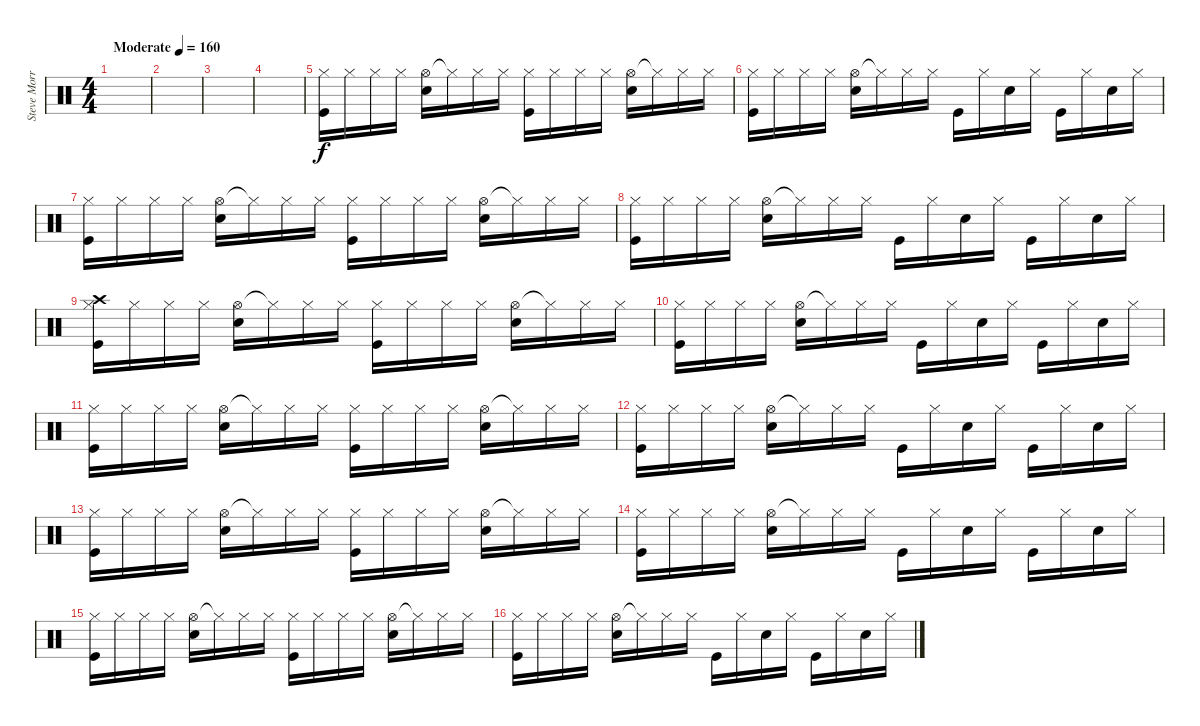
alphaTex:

\track ("Steve Morris" "Steve Morr") {instrument percussion}
\staff {score}
\articulation defaults
\ts (4 4)
\tempo (160 "Moderate")
\clef neutral
\ks c
|
|
|
|
("Hi-Hat (closed)" "Kick (hit)").16 "Hi-Hat (closed)".16 "Hi-Hat (closed)".16 "Hi-Hat (closed)".16 ("Hi-Hat (open)" "Electric Snare (hit)").16 "Hi-Hat (closed)"{t}.16 "Hi-Hat (closed)".16 "Hi-Hat (closed)".16 ("Hi-Hat (closed)" "Kick (hit)").16 "Hi-Hat (closed)".16 "Hi-Hat (closed)".16 "Hi-Hat (closed)".16 ("Hi-Hat (open)" "Electric Snare (hit)").16 "Hi-Hat (closed)"{t}.16 "Hi-Hat (closed)".16 "Hi-Hat (closed)".16 |
("Hi-Hat (closed)" "Kick (hit)").16 "Hi-Hat (closed)".16 "Hi-Hat (closed)".16 "Hi-Hat (closed)".16 ("Hi-Hat (open)" "Electric Snare (hit)").16 "Hi-Hat (closed)"{t}.16 "Hi-Hat (closed)".16 "Hi-Hat (closed)".16 "Kick (hit)".16 "Hi-Hat (closed)".16 "Electric Snare (hit)".16 "Hi-Hat (closed)".16 "Kick (hit)".16 "Hi-Hat (closed)".16 "Electric Snare (hit)".16 "Hi-Hat (closed)".16 |
("Hi-Hat (closed)" "Kick (hit)").16 "Hi-Hat (closed)".16 "Hi-Hat (closed)".16 "Hi-Hat (closed)".16 ("Hi-Hat (open)" "Electric Snare (hit)").16 "Hi-Hat (closed)"{t}.16 "Hi-Hat (closed)".16 "Hi-Hat (closed)".16 ("Hi-Hat (closed)" "Kick (hit)").16 "Hi-Hat (closed)".16 "Hi-Hat (closed)".16 "Hi-Hat (closed)".16 ("Hi-Hat (open)" "Electric Snare (hit)").16 "Hi-Hat (closed)"{t}.16 "Hi-Hat (closed)".16 "Hi-Hat (closed)".16 |
("Hi-Hat (closed)" "Kick (hit)").16 "Hi-Hat (closed)".16 "Hi-Hat (closed)".16 "Hi-Hat (closed)".16 ("Hi-Hat (open)" "Electric Snare (hit)").16 "Hi-Hat (closed)"{t}.16 "Hi-Hat (closed)".16 "Hi-Hat (closed)".16 "Kick (hit)".16 "Hi-Hat (closed)".16 "Electric Snare (hit)".16 "Hi-Hat (closed)".16 "Kick (hit)".16 "Hi-Hat (closed)".16 "Electric Snare (hit)".16 "Hi-Hat (closed)".16 |
("Hi-Hat (closed)" "Kick (hit)" "Crash high (hit)").16 "Hi-Hat (closed)".16 "Hi-Hat (closed)".16 "Hi-Hat (closed)".16 ("Hi-Hat (open)" "Electric Snare (hit)").16 "Hi-Hat (closed)"{t}.16 "Hi-Hat (closed)".16 "Hi-Hat (closed)".16 ("Hi-Hat (closed)" "Kick (hit)").16 "Hi-Hat (closed)".16 "Hi-Hat (closed)".16 "Hi-Hat (closed)".16 ("Hi-Hat (open)" "Electric Snare (hit)").16 "Hi-Hat (closed)"{t}.16 "Hi-Hat (closed)".16 "Hi-Hat (closed)".16 |
("Hi-Hat (closed)" "Kick (hit)").16 "Hi-Hat (closed)".16 "Hi-Hat (closed)".16 "Hi-Hat (closed)".16 ("Hi-Hat (open)" "Electric Snare (hit)").16 "Hi-Hat (closed)"{t}.16 "Hi-Hat (closed)".16 "Hi-Hat (closed)".16 "Kick (hit)".16 "Hi-Hat (closed)".16 "Electric Snare (hit)".16 "Hi-Hat (closed)".16 "Kick (hit)".16 "Hi-Hat (closed)".16 "Electric Snare (hit)".16 "Hi-Hat (closed)".16 |
("Hi-Hat (closed)" "Kick (hit)").16 "Hi-Hat (closed)".16 "Hi-Hat (closed)".16 "Hi-Hat (closed)".16 ("Hi-Hat (open)" "Electric Snare (hit)").16 "Hi-Hat (closed)"{t}.16 "Hi-Hat (closed)".16 "Hi-Hat (closed)".16 ("Hi-Hat (closed)" "Kick (hit)").16 "Hi-Hat (closed)".16 "Hi-Hat (closed)".16 "Hi-Hat (closed)".16 ("Hi-Hat (open)" "Electric Snare (hit)").16 "Hi-Hat (closed)"{t}.16 "Hi-Hat (closed)".16 "Hi-Hat (closed)".16 |
("Hi-Hat (closed)" "Kick (hit)").16 "Hi-Hat (closed)".16 "Hi-Hat (closed)".16 "Hi-Hat (closed)".16 ("Hi-Hat (open)" "Electric Snare (hit)").16 "Hi-Hat (closed)"{t}.16 "Hi-Hat (closed)".16 "Hi-Hat (closed)".16 "Kick (hit)".16 "Hi-Hat (closed)".16 "Electric Snare (hit)".16 "Hi-Hat (closed)".16 "Kick (hit)".16 "Hi-Hat (closed)".16 "Electric Snare (hit)".16 "Hi-Hat (closed)".16 |
("Hi-Hat (closed)" "Kick (hit)").16 "Hi-Hat (closed)".16 "Hi-Hat (closed)".16 "Hi-Hat (closed)".16 ("Hi-Hat (open)" "Electric Snare (hit)").16 "Hi-Hat (closed)"{t}.16 "Hi-Hat (closed)".16 "Hi-Hat (closed)".16 ("Hi-Hat (closed)" "Kick (hit)").16 "Hi-Hat (closed)".16 "Hi-Hat (closed)".16 "Hi-Hat (closed)".16 ("Hi-Hat (open)" "Electric Snare (hit)").16 "Hi-Hat (closed)"{t}.16 "Hi-Hat (closed)".16 "Hi-Hat (closed)".16 |
("Hi-Hat (closed)" "Kick (hit)").16 "Hi-Hat (closed)".16 "Hi-Hat (closed)".16 "Hi-Hat (closed)".16 ("Hi-Hat (open)" "Electric Snare (hit)").16 "Hi-Hat (closed)"{t}.16 "Hi-Hat (closed)".16 "Hi-Hat (closed)".16 "Kick (hit)".16 "Hi-Hat (closed)".16 "Electric Snare (hit)".16 "Hi-Hat (closed)".16 "Kick (hit)".16 "Hi-Hat (closed)".16 "Electric Snare (hit)".16 "Hi-Hat (closed)".16 |
("Hi-Hat (closed)" "Kick (hit)").16 "Hi-Hat (closed)".16 "Hi-Hat (closed)".16 "Hi-Hat (closed)".16 ("Hi-Hat (open)" "Electric Snare (hit)").16 "Hi-Hat (closed)"{t}.16 "Hi-Hat (closed)".16 "Hi-Hat (closed)".16 ("Hi-Hat (closed)" "Kick (hit)").16 "Hi-Hat (closed)".16 "Hi-Hat (closed)".16 "Hi-Hat (closed)".16 ("Hi-Hat (open)" "Electric Snare (hit)").16 "Hi-Hat (closed)"{t}.16 "Hi-Hat (closed)".16 "Hi-Hat (closed)".16 |
("Hi-Hat (closed)" "Kick (hit)").16 "Hi-Hat (closed)".16 "Hi-Hat (closed)".16 "Hi-Hat (closed)".16 ("Hi-Hat (open)" "Electric Snare (hit)").16 "Hi-Hat (closed)"{t}.16 "Hi-Hat (closed)".16 "Hi-Hat (closed)".16 "Kick (hit)".16 "Hi-Hat (closed)".16 "Electric Snare (hit)".16 "Hi-Hat (closed)".16 "Kick (hit)".16 "Hi-Hat (closed)".16 "Electric Snare (hit)".16 "Hi-Hat (closed)".16
